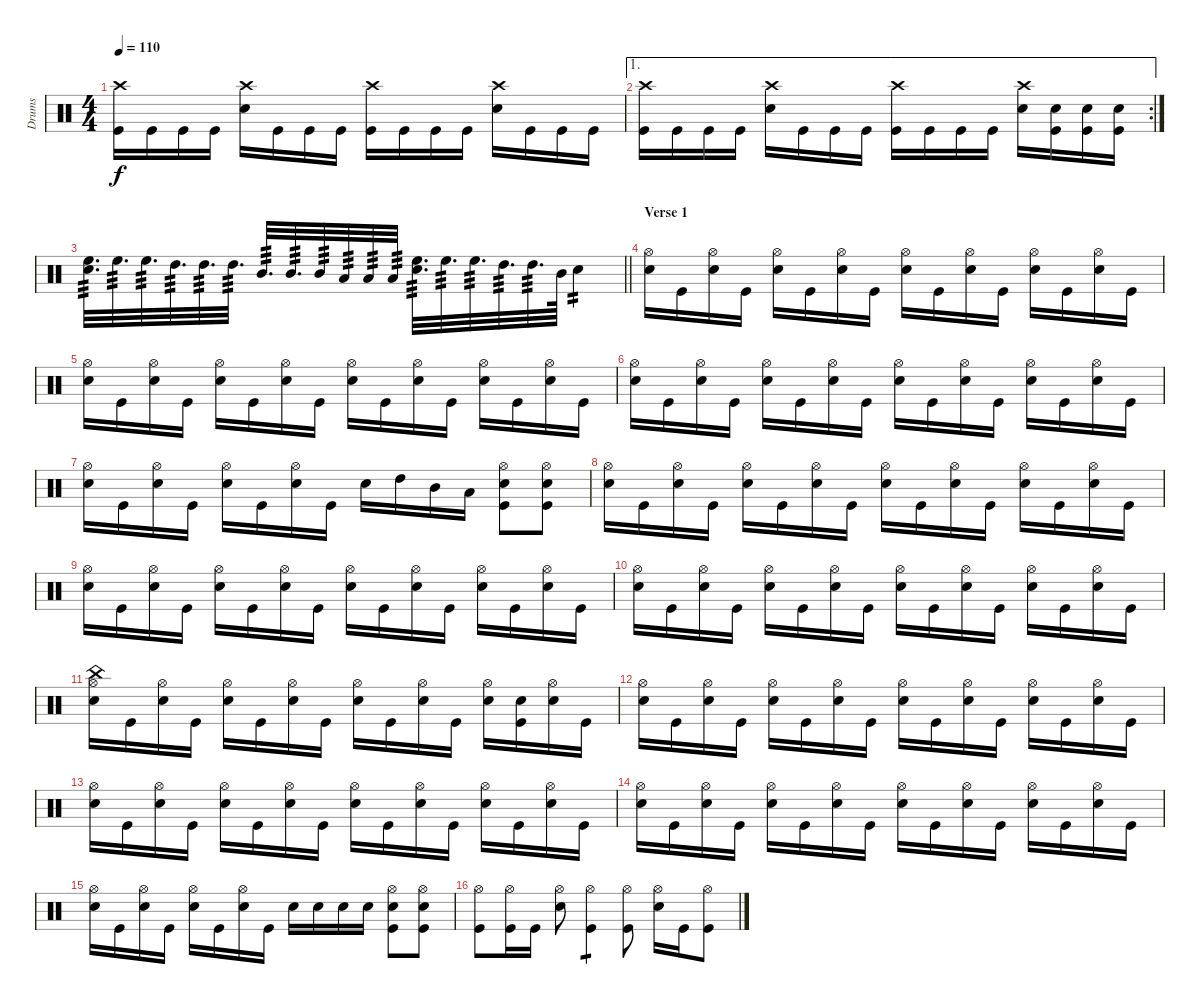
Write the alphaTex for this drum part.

\track ("Drums" "Drums") {instrument percussion}
\staff {score}
\articulation defaults
\ts (4 4)
\tempo 110
\clef neutral
\ks c
("Crash high (hit)" "Kick (hit)").16{dy f} "Kick (hit)".16 "Kick (hit)".16 "Kick (hit)".16 ("Crash high (hit)" "Snare (hit) 2").16 "Kick (hit)".16 "Kick (hit)".16 "Kick (hit)".16 ("Crash high (hit)" "Kick (hit)").16 "Kick (hit)".16 "Kick (hit)".16 "Kick (hit)".16 ("Crash high (hit)" "Snare (hit) 2").16 "Kick (hit)".16 "Kick (hit)".16 "Kick (hit)".16 |
\ae 1
\rc 2
("Crash high (hit)" "Kick (hit)").16 "Kick (hit)".16 "Kick (hit)".16 "Kick (hit)".16 ("Crash high (hit)" "Snare (hit) 2").16 "Kick (hit)".16 "Kick (hit)".16 "Kick (hit)".16 ("Crash high (hit)" "Kick (hit)").16 "Kick (hit)".16 "Kick (hit)".16 "Kick (hit)".16 ("Crash high (hit)" "Snare (hit) 2").16 ("Snare (hit) 2" "Kick (hit)").16 ("Snare (hit) 2" "Kick (hit)").16 ("Snare (hit) 2" "Kick (hit)").16 |
\barLineRight lightlight
("Snare (hit) 2" "High Floor Tom (hit)").32{d tp 3} "High Floor Tom (hit)".32{d tp 3} "High Floor Tom (hit)".32{d tp 3} "High Tom (hit)".32{d tp 3} "High Tom (hit)".32{d tp 3} "High Tom (hit)".32{d tp 3} "Mid Tom (hit)".32{d tp 3} "Mid Tom (hit)".32{d tp 3} "Mid Tom (hit)".32{tp 3} "Low Tom (hit)".32{tp 3} "Low Tom (hit)".32{tp 3} "Low Tom (hit)".32{tp 3} ("Snare (hit) 2" "High Floor Tom (hit)").32{d tp 3} "High Floor Tom (hit)".32{d tp 3} "High Floor Tom (hit)".32{d tp 3} "High Tom (hit)".32{d tp 3} "High Tom (hit)".32{d tp 3} "Mid Tom (hit)".64 "Snare (hit) 2".4{tp 2} |
\section ("" "Verse 1")
("Hi-Hat (open)" "Snare (hit) 2").16 "Kick (hit)".16 ("Hi-Hat (open)" "Snare (hit) 2").16 "Kick (hit)".16 ("Hi-Hat (open)" "Snare (hit) 2").16 "Kick (hit)".16 ("Hi-Hat (open)" "Snare (hit) 2").16 "Kick (hit)".16 ("Hi-Hat (open)" "Snare (hit) 2").16 "Kick (hit)".16 ("Hi-Hat (open)" "Snare (hit) 2").16 "Kick (hit)".16 ("Hi-Hat (open)" "Snare (hit) 2").16 "Kick (hit)".16 ("Hi-Hat (open)" "Snare (hit) 2").16 "Kick (hit)".16 |
("Hi-Hat (open)" "Snare (hit) 2").16 "Kick (hit)".16 ("Hi-Hat (open)" "Snare (hit) 2").16 "Kick (hit)".16 ("Hi-Hat (open)" "Snare (hit) 2").16 "Kick (hit)".16 ("Hi-Hat (open)" "Snare (hit) 2").16 "Kick (hit)".16 ("Hi-Hat (open)" "Snare (hit) 2").16 "Kick (hit)".16 ("Hi-Hat (open)" "Snare (hit) 2").16 "Kick (hit)".16 ("Hi-Hat (open)" "Snare (hit) 2").16 "Kick (hit)".16 ("Hi-Hat (open)" "Snare (hit) 2").16 "Kick (hit)".16 |
("Hi-Hat (open)" "Snare (hit) 2").16 "Kick (hit)".16 ("Hi-Hat (open)" "Snare (hit) 2").16 "Kick (hit)".16 ("Hi-Hat (open)" "Snare (hit) 2").16 "Kick (hit)".16 ("Hi-Hat (open)" "Snare (hit) 2").16 "Kick (hit)".16 ("Hi-Hat (open)" "Snare (hit) 2").16 "Kick (hit)".16 ("Hi-Hat (open)" "Snare (hit) 2").16 "Kick (hit)".16 ("Hi-Hat (open)" "Snare (hit) 2").16 "Kick (hit)".16 ("Hi-Hat (open)" "Snare (hit) 2").16 "Kick (hit)".16 |
("Hi-Hat (open)" "Snare (hit) 2").16 "Kick (hit)".16 ("Hi-Hat (open)" "Snare (hit) 2").16 "Kick (hit)".16 ("Hi-Hat (open)" "Snare (hit) 2").16 "Kick (hit)".16 ("Hi-Hat (open)" "Snare (hit) 2").16 "Kick (hit)".16 "Snare (hit) 2".16 "High Tom (hit)".16 "Mid Tom (hit)".16 "Low Tom (hit)".16 ("Hi-Hat (open)" "Snare (hit) 2" "Kick (hit)").8 ("Hi-Hat (open)" "Snare (hit) 2" "Kick (hit)").8 |
("Hi-Hat (open)" "Snare (hit) 2").16 "Kick (hit)".16 ("Hi-Hat (open)" "Snare (hit) 2").16 "Kick (hit)".16 ("Hi-Hat (open)" "Snare (hit) 2").16 "Kick (hit)".16 ("Hi-Hat (open)" "Snare (hit) 2").16 "Kick (hit)".16 ("Hi-Hat (open)" "Snare (hit) 2").16 "Kick (hit)".16 ("Hi-Hat (open)" "Snare (hit) 2").16 "Kick (hit)".16 ("Hi-Hat (open)" "Snare (hit) 2").16 "Kick (hit)".16 ("Hi-Hat (open)" "Snare (hit) 2").16 "Kick (hit)".16 |
("Hi-Hat (open)" "Snare (hit) 2").16 "Kick (hit)".16 ("Hi-Hat (open)" "Snare (hit) 2").16 "Kick (hit)".16 ("Hi-Hat (open)" "Snare (hit) 2").16 "Kick (hit)".16 ("Hi-Hat (open)" "Snare (hit) 2").16 "Kick (hit)".16 ("Hi-Hat (open)" "Snare (hit) 2").16 "Kick (hit)".16 ("Hi-Hat (open)" "Snare (hit) 2").16 "Kick (hit)".16 ("Hi-Hat (open)" "Snare (hit) 2").16 "Kick (hit)".16 ("Hi-Hat (open)" "Snare (hit) 2").16 "Kick (hit)".16 |
("Hi-Hat (open)" "Snare (hit) 2").16 "Kick (hit)".16 ("Hi-Hat (open)" "Snare (hit) 2").16 "Kick (hit)".16 ("Hi-Hat (open)" "Snare (hit) 2").16 "Kick (hit)".16 ("Hi-Hat (open)" "Snare (hit) 2").16 "Kick (hit)".16 ("Hi-Hat (open)" "Snare (hit) 2").16 "Kick (hit)".16 ("Hi-Hat (open)" "Snare (hit) 2").16 "Kick (hit)".16 ("Hi-Hat (open)" "Snare (hit) 2").16 "Kick (hit)".16 ("Hi-Hat (open)" "Snare (hit) 2").16 "Kick (hit)".16 |
("China (hit)" "Hi-Hat (open)" "Snare (hit) 2").16 "Kick (hit)".16 ("Hi-Hat (open)" "Snare (hit) 2").16 "Kick (hit)".16 ("Hi-Hat (open)" "Snare (hit) 2").16 "Kick (hit)".16 ("Hi-Hat (open)" "Snare (hit) 2").16 "Kick (hit)".16 ("Hi-Hat (open)" "Snare (hit) 2").16 "Kick (hit)".16 ("Hi-Hat (open)" "Snare (hit) 2").16 "Kick (hit)".16 ("Hi-Hat (open)" "Snare (hit) 2").16 ("Snare (hit) 2" "Kick (hit)").16 ("Hi-Hat (open)" "Snare (hit) 2").16 "Kick (hit)".16 |
("Hi-Hat (open)" "Snare (hit) 2").16 "Kick (hit)".16 ("Hi-Hat (open)" "Snare (hit) 2").16 "Kick (hit)".16 ("Hi-Hat (open)" "Snare (hit) 2").16 "Kick (hit)".16 ("Hi-Hat (open)" "Snare (hit) 2").16 "Kick (hit)".16 ("Hi-Hat (open)" "Snare (hit) 2").16 "Kick (hit)".16 ("Hi-Hat (open)" "Snare (hit) 2").16 "Kick (hit)".16 ("Hi-Hat (open)" "Snare (hit) 2").16 "Kick (hit)".16 ("Hi-Hat (open)" "Snare (hit) 2").16 "Kick (hit)".16 |
("Hi-Hat (open)" "Snare (hit) 2").16 "Kick (hit)".16 ("Hi-Hat (open)" "Snare (hit) 2").16 "Kick (hit)".16 ("Hi-Hat (open)" "Snare (hit) 2").16 "Kick (hit)".16 ("Hi-Hat (open)" "Snare (hit) 2").16 "Kick (hit)".16 ("Hi-Hat (open)" "Snare (hit) 2").16 "Kick (hit)".16 ("Hi-Hat (open)" "Snare (hit) 2").16 "Kick (hit)".16 ("Hi-Hat (open)" "Snare (hit) 2").16 "Kick (hit)".16 ("Hi-Hat (open)" "Snare (hit) 2").16 "Kick (hit)".16 |
("Hi-Hat (open)" "Snare (hit) 2").16 "Kick (hit)".16 ("Hi-Hat (open)" "Snare (hit) 2").16 "Kick (hit)".16 ("Hi-Hat (open)" "Snare (hit) 2").16 "Kick (hit)".16 ("Hi-Hat (open)" "Snare (hit) 2").16 "Kick (hit)".16 ("Hi-Hat (open)" "Snare (hit) 2").16 "Kick (hit)".16 ("Hi-Hat (open)" "Snare (hit) 2").16 "Kick (hit)".16 ("Hi-Hat (open)" "Snare (hit) 2").16 "Kick (hit)".16 ("Hi-Hat (open)" "Snare (hit) 2").16 "Kick (hit)".16 |
("Hi-Hat (open)" "Snare (hit) 2").16 "Kick (hit)".16 ("Hi-Hat (open)" "Snare (hit) 2").16 "Kick (hit)".16 ("Hi-Hat (open)" "Snare (hit) 2").16 "Kick (hit)".16 ("Hi-Hat (open)" "Snare (hit) 2").16 "Kick (hit)".16 "Snare (hit) 2".16 "Snare (hit) 2".16 "Snare (hit) 2".16 "Snare (hit) 2".16 ("Snare (hit) 2" "Hi-Hat (open)" "Kick (hit)").8 ("Snare (hit) 2" "Hi-Hat (open)" "Kick (hit)").8 |
("Hi-Hat (open)" "Kick (hit)").8 ("Hi-Hat (open)" "Kick (hit)").16 "Kick (hit)".16 ("Hi-Hat (open)" "Snare (hit) 2").8 ("Hi-Hat (open)" "Kick (hit)").4{tp 1} ("Hi-Hat (open)" "Kick (hit)").8 ("Hi-Hat (open)" "Snare (hit) 2").16 "Kick (hit)".16 ("Hi-Hat (open)" "Kick (hit)").8
